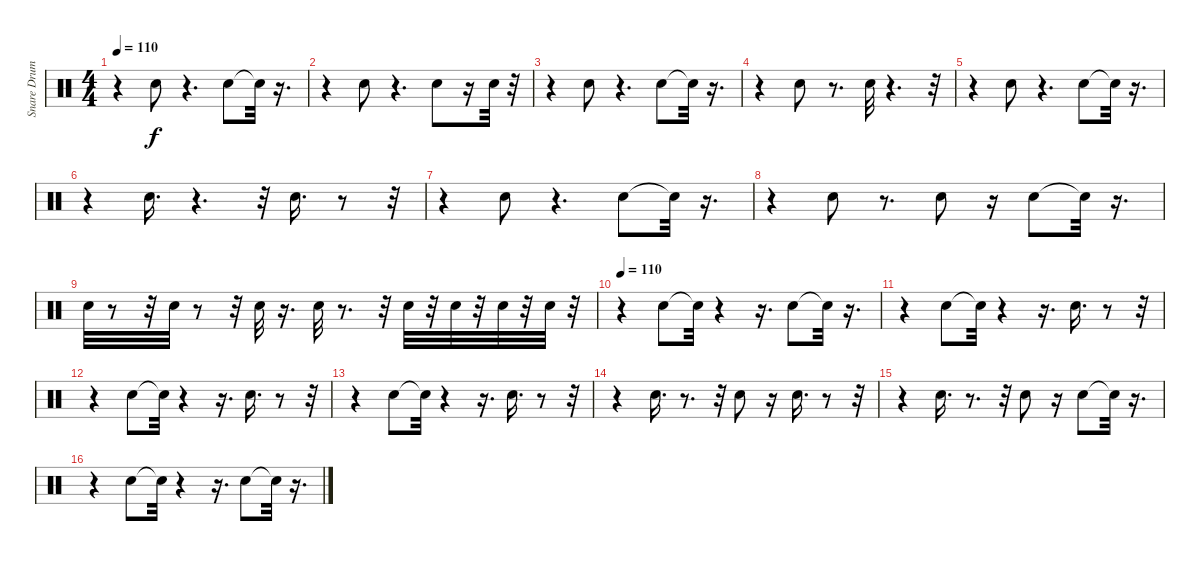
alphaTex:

\track ("Snare Drum" "Snare Drum") {instrument percussion}
\staff {score}
\articulation defaults
\ts (4 4)
\tempo 110
\clef neutral
\ks c
r.4{dy f} "Snare (hit) 2".8 r.4{d} "Snare (hit) 2".8 "Snare (hit)"{t}.32 r.16{d} |
r.4 "Snare (hit) 2".8 r.4{d} "Snare (hit) 2".8 r.16 "Snare (hit) 2".32 r.32 |
r.4 "Snare (hit) 2".8 r.4{d} "Snare (hit) 2".8 "Snare (hit)"{t}.32 r.16{d} |
r.4 "Snare (hit) 2".8 r.8{d} "Snare (hit) 2".32 r.4{d} r.32 |
r.4 "Snare (hit) 2".8 r.4{d} "Snare (hit) 2".8 "Snare (hit)"{t}.32 r.16{d} |
r.4 "Snare (hit) 2".16{d} r.4{d} r.32 "Snare (hit) 2".16{d} r.8 r.32 |
r.4 "Snare (hit) 2".8 r.4{d} "Snare (hit) 2".8 "Snare (hit)"{t}.32 r.16{d} |
r.4 "Snare (hit) 2".8 r.8{d} "Snare (hit) 2".8 r.16 "Snare (hit) 2".8 "Snare (hit)"{t}.32 r.16{d} |
"Snare (hit) 2".32 r.8 r.32 "Snare (hit) 2".32 r.8 r.32 "Snare (hit) 2".32 r.16{d} "Snare (hit) 2".32 r.8{d} r.32 "Snare (hit) 2".32 r.32 "Snare (hit) 2".32 r.32 "Snare (hit) 2".32 r.32 "Snare (hit) 2".32 r.32 |
\tempo 110
r.4 "Snare (hit) 2".8 "Snare (hit)"{t}.32 r.4 r.16{d} "Snare (hit) 2".8 "Snare (hit)"{t}.32 r.16{d} |
r.4 "Snare (hit) 2".8 "Snare (hit)"{t}.32 r.4 r.16{d} "Snare (hit) 2".16{d} r.8 r.32 |
r.4 "Snare (hit) 2".8 "Snare (hit)"{t}.32 r.4 r.16{d} "Snare (hit) 2".16{d} r.8 r.32 |
r.4 "Snare (hit) 2".8 "Snare (hit)"{t}.32 r.4 r.16{d} "Snare (hit) 2".16{d} r.8 r.32 |
r.4 "Snare (hit) 2".16{d} r.8{d} r.32 "Snare (hit) 2".8 r.16 "Snare (hit) 2".16{d} r.8 r.32 |
r.4 "Snare (hit) 2".16{d} r.8{d} r.32 "Snare (hit) 2".8 r.16 "Snare (hit) 2".8 "Snare (hit)"{t}.32 r.16{d} |
r.4 "Snare (hit) 2".8 "Snare (hit)"{t}.32 r.4 r.16{d} "Snare (hit) 2".8 "Snare (hit)"{t}.32 r.16{d}
